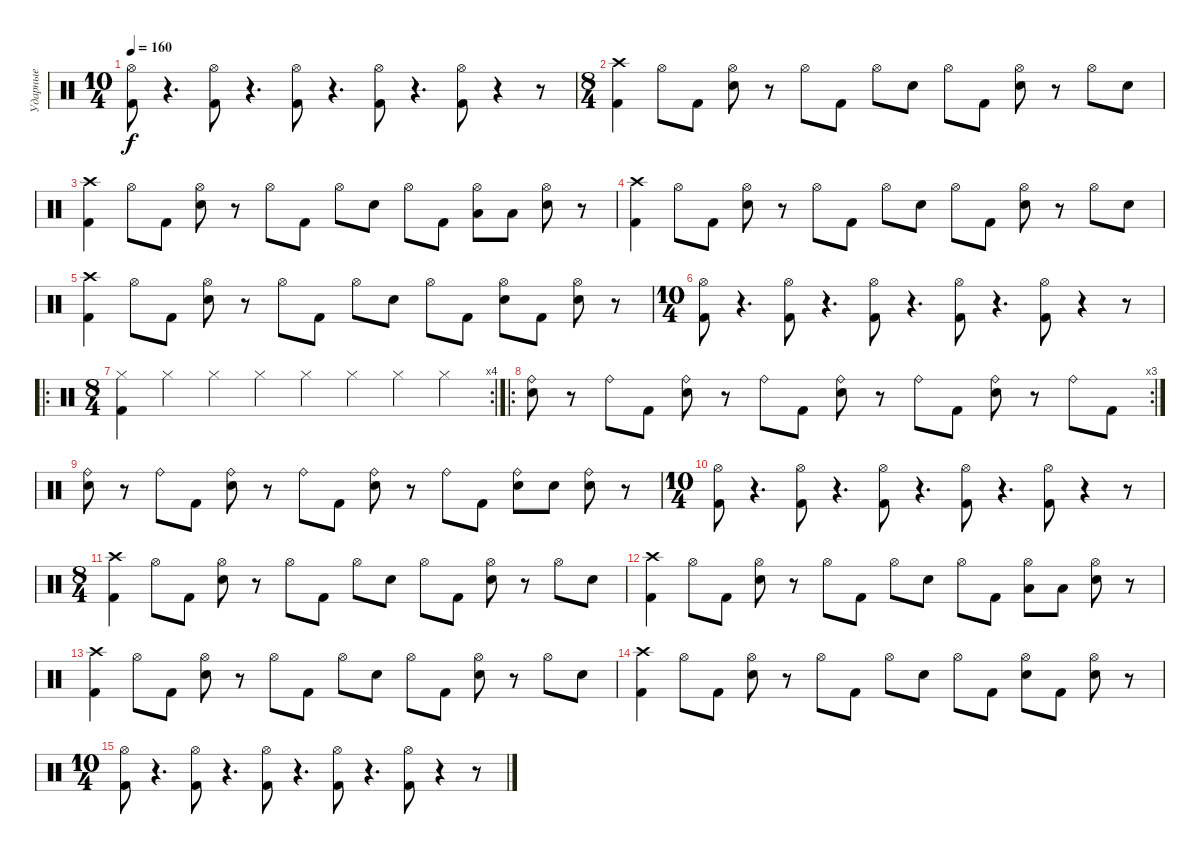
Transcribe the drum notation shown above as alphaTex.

\track ("Ударные" "Ударные") {instrument percussion}
\staff {score}
\articulation defaults
\ts (10 4)
\tempo 160
\clef neutral
\ks c
("Hi-Hat (open)" "Kick (hit) 2").8{dy f} r.4{d} ("Hi-Hat (open)" "Kick (hit) 2").8 r.4{d} ("Hi-Hat (open)" "Kick (hit) 2").8 r.4{d} ("Hi-Hat (open)" "Kick (hit) 2").8 r.4{d} ("Hi-Hat (open)" "Kick (hit) 2").8 r.4 r.8 |
\ts (8 4)
("Crash high (hit)" "Kick (hit) 2").4 "Hi-Hat (open)".8 "Kick (hit) 2".8 ("Hi-Hat (open)" "Electric Snare (hit)").8 r.8 "Hi-Hat (open)".8 "Kick (hit) 2".8 "Hi-Hat (open)".8 "Electric Snare (hit)".8 "Hi-Hat (open)".8 "Kick (hit) 2".8 ("Hi-Hat (open)" "Electric Snare (hit)").8 r.8 "Hi-Hat (open)".8 "Electric Snare (hit)".8 |
("Crash high (hit)" "Kick (hit) 2").4 "Hi-Hat (open)".8 "Kick (hit) 2".8 ("Hi-Hat (open)" "Electric Snare (hit)").8 r.8 "Hi-Hat (open)".8 "Kick (hit) 2".8 "Hi-Hat (open)".8 "Electric Snare (hit)".8 "Hi-Hat (open)".8 "Kick (hit) 2".8 ("Hi-Hat (open)" "Low Tom (hit)").8 "Low Tom (hit)".8 ("Hi-Hat (open)" "Electric Snare (hit)").8 r.8 |
("Crash high (hit)" "Kick (hit) 2").4 "Hi-Hat (open)".8 "Kick (hit) 2".8 ("Hi-Hat (open)" "Electric Snare (hit)").8 r.8 "Hi-Hat (open)".8 "Kick (hit) 2".8 "Hi-Hat (open)".8 "Electric Snare (hit)".8 "Hi-Hat (open)".8 "Kick (hit) 2".8 ("Hi-Hat (open)" "Electric Snare (hit)").8 r.8 "Hi-Hat (open)".8 "Electric Snare (hit)".8 |
("Crash high (hit)" "Kick (hit) 2").4 "Hi-Hat (open)".8 "Kick (hit) 2".8 ("Hi-Hat (open)" "Electric Snare (hit)").8 r.8 "Hi-Hat (open)".8 "Kick (hit) 2".8 "Hi-Hat (open)".8 "Electric Snare (hit)".8 "Hi-Hat (open)".8 "Kick (hit) 2".8 ("Hi-Hat (open)" "Electric Snare (hit)").8 "Kick (hit) 2".8 ("Hi-Hat (open)" "Electric Snare (hit)").8 r.8 |
\ts (10 4)
("Hi-Hat (open)" "Kick (hit) 2").8 r.4{d} ("Hi-Hat (open)" "Kick (hit) 2").8 r.4{d} ("Hi-Hat (open)" "Kick (hit) 2").8 r.4{d} ("Hi-Hat (open)" "Kick (hit) 2").8 r.4{d} ("Hi-Hat (open)" "Kick (hit) 2").8 r.4 r.8 |
\ro
\rc 4
\ts (8 4)
("Hi-Hat (closed)" "Kick (hit) 2").4 "Hi-Hat (closed)".4 "Hi-Hat (closed)".4 "Hi-Hat (closed)".4 "Hi-Hat (closed)".4 "Hi-Hat (closed)".4 "Hi-Hat (closed)".4 "Hi-Hat (closed)".4 |
\ro
\rc 3
("Ride (bell)" "Electric Snare (hit)").8 r.8 "Ride (bell)".8 "Kick (hit) 2".8 ("Ride (bell)" "Electric Snare (hit)").8 r.8 "Ride (bell)".8 "Kick (hit) 2".8 ("Ride (bell)" "Electric Snare (hit)").8 r.8 "Ride (bell)".8 "Kick (hit) 2".8 ("Ride (bell)" "Electric Snare (hit)").8 r.8 "Ride (bell)".8 "Kick (hit) 2".8 |
("Ride (bell)" "Electric Snare (hit)").8 r.8 "Ride (bell)".8 "Kick (hit) 2".8 ("Ride (bell)" "Electric Snare (hit)").8 r.8 "Ride (bell)".8 "Kick (hit) 2".8 ("Ride (bell)" "Electric Snare (hit)").8 r.8 "Ride (bell)".8 "Kick (hit) 2".8 ("Ride (bell)" "Electric Snare (hit)").8 "Electric Snare (hit)".8 ("Ride (bell)" "Electric Snare (hit)").8 r.8 |
\ts (10 4)
("Hi-Hat (open)" "Kick (hit) 2").8 r.4{d} ("Hi-Hat (open)" "Kick (hit) 2").8 r.4{d} ("Hi-Hat (open)" "Kick (hit) 2").8 r.4{d} ("Hi-Hat (open)" "Kick (hit) 2").8 r.4{d} ("Hi-Hat (open)" "Kick (hit) 2").8 r.4 r.8 |
\ts (8 4)
("Crash high (hit)" "Kick (hit) 2").4 "Hi-Hat (open)".8 "Kick (hit) 2".8 ("Hi-Hat (open)" "Electric Snare (hit)").8 r.8 "Hi-Hat (open)".8 "Kick (hit) 2".8 "Hi-Hat (open)".8 "Electric Snare (hit)".8 "Hi-Hat (open)".8 "Kick (hit) 2".8 ("Hi-Hat (open)" "Electric Snare (hit)").8 r.8 "Hi-Hat (open)".8 "Electric Snare (hit)".8 |
("Crash high (hit)" "Kick (hit) 2").4 "Hi-Hat (open)".8 "Kick (hit) 2".8 ("Hi-Hat (open)" "Electric Snare (hit)").8 r.8 "Hi-Hat (open)".8 "Kick (hit) 2".8 "Hi-Hat (open)".8 "Electric Snare (hit)".8 "Hi-Hat (open)".8 "Kick (hit) 2".8 ("Hi-Hat (open)" "Low Tom (hit)").8 "Low Tom (hit)".8 ("Hi-Hat (open)" "Electric Snare (hit)").8 r.8 |
("Crash high (hit)" "Kick (hit) 2").4 "Hi-Hat (open)".8 "Kick (hit) 2".8 ("Hi-Hat (open)" "Electric Snare (hit)").8 r.8 "Hi-Hat (open)".8 "Kick (hit) 2".8 "Hi-Hat (open)".8 "Electric Snare (hit)".8 "Hi-Hat (open)".8 "Kick (hit) 2".8 ("Hi-Hat (open)" "Electric Snare (hit)").8 r.8 "Hi-Hat (open)".8 "Electric Snare (hit)".8 |
("Crash high (hit)" "Kick (hit) 2").4 "Hi-Hat (open)".8 "Kick (hit) 2".8 ("Hi-Hat (open)" "Electric Snare (hit)").8 r.8 "Hi-Hat (open)".8 "Kick (hit) 2".8 "Hi-Hat (open)".8 "Electric Snare (hit)".8 "Hi-Hat (open)".8 "Kick (hit) 2".8 ("Hi-Hat (open)" "Electric Snare (hit)").8 "Kick (hit) 2".8 ("Hi-Hat (open)" "Electric Snare (hit)").8 r.8 |
\ts (10 4)
("Hi-Hat (open)" "Kick (hit) 2").8 r.4{d} ("Hi-Hat (open)" "Kick (hit) 2").8 r.4{d} ("Hi-Hat (open)" "Kick (hit) 2").8 r.4{d} ("Hi-Hat (open)" "Kick (hit) 2").8 r.4{d} ("Hi-Hat (open)" "Kick (hit) 2").8 r.4 r.8
